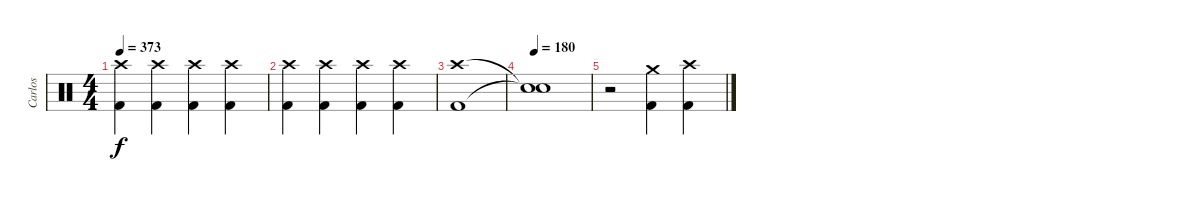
\track ("Carlos" "Carlos") {instrument percussion}
\staff {score}
\articulation defaults
\ts (4 4)
\tempo 373
\clef neutral
\ks c
("Crash high (hit)" "Kick (hit) 2").4{dy f} ("Crash high (hit)" "Kick (hit) 2").4 ("Crash high (hit)" "Kick (hit) 2").4 ("Crash high (hit)" "Kick (hit) 2").4 |
("Crash high (hit)" "Kick (hit) 2").4 ("Crash high (hit)" "Kick (hit) 2").4 ("Crash high (hit)" "Kick (hit) 2").4 ("Crash high (hit)" "Kick (hit) 2").4 |
("Crash high (hit)" "Kick (hit) 2").1 |
\tempo 180
("Snare (hit)"{t} "Snare (hit)"{t}).1 |
r.2 ("Crash medium (hit)" "Kick (hit) 2").4 ("Crash high (hit)" "Kick (hit) 2").4
